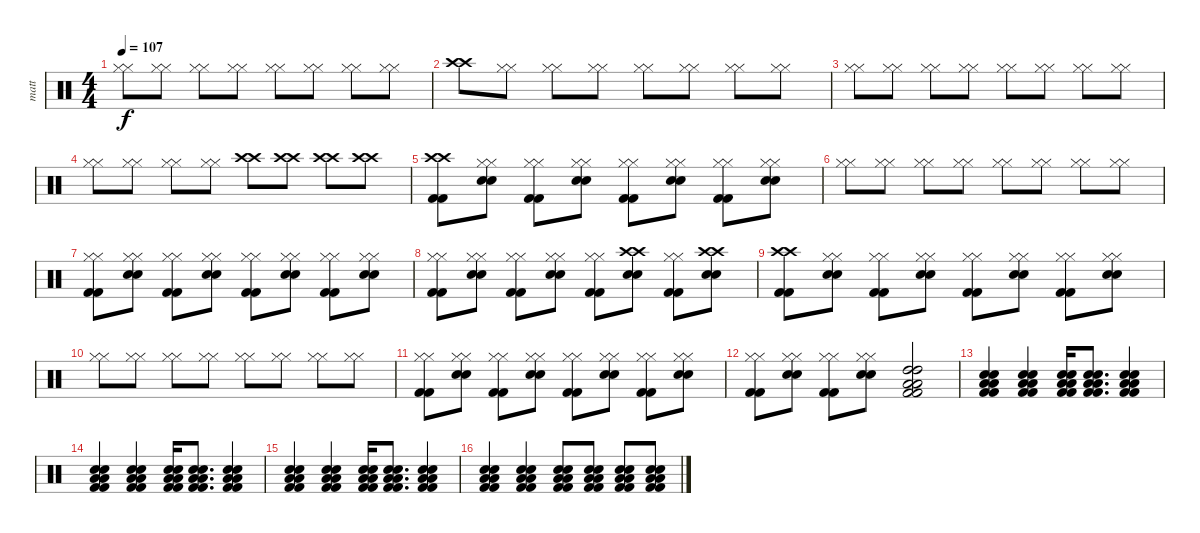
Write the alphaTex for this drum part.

\track ("matt" "matt") {instrument percussion}
\staff {score}
\articulation defaults
\ts (4 4)
\tempo 107
\clef neutral
\ks c
("Hi-Hat (closed)" "Hi-Hat (closed)").8{dy f} ("Hi-Hat (closed)" "Hi-Hat (closed)").8 ("Hi-Hat (closed)" "Hi-Hat (closed)").8 ("Hi-Hat (closed)" "Hi-Hat (closed)").8 ("Hi-Hat (closed)" "Hi-Hat (closed)").8 ("Hi-Hat (closed)" "Hi-Hat (closed)").8 ("Hi-Hat (closed)" "Hi-Hat (closed)").8 ("Hi-Hat (closed)" "Hi-Hat (closed)").8 |
("Crash high (hit)" "Crash high (hit)").8 ("Hi-Hat (closed)" "Hi-Hat (closed)").8 ("Hi-Hat (closed)" "Hi-Hat (closed)").8 ("Hi-Hat (closed)" "Hi-Hat (closed)").8 ("Hi-Hat (closed)" "Hi-Hat (closed)").8 ("Hi-Hat (closed)" "Hi-Hat (closed)").8 ("Hi-Hat (closed)" "Hi-Hat (closed)").8 ("Hi-Hat (closed)" "Hi-Hat (closed)").8 |
("Hi-Hat (closed)" "Hi-Hat (closed)").8 ("Hi-Hat (closed)" "Hi-Hat (closed)").8 ("Hi-Hat (closed)" "Hi-Hat (closed)").8 ("Hi-Hat (closed)" "Hi-Hat (closed)").8 ("Hi-Hat (closed)" "Hi-Hat (closed)").8 ("Hi-Hat (closed)" "Hi-Hat (closed)").8 ("Hi-Hat (closed)" "Hi-Hat (closed)").8 ("Hi-Hat (closed)" "Hi-Hat (closed)").8 |
("Hi-Hat (closed)" "Hi-Hat (closed)").8 ("Hi-Hat (closed)" "Hi-Hat (closed)").8 ("Hi-Hat (closed)" "Hi-Hat (closed)").8 ("Hi-Hat (closed)" "Hi-Hat (closed)").8 ("Crash high (hit)" "Crash high (hit)").8 ("Crash high (hit)" "Crash high (hit)").8 ("Crash high (hit)" "Crash high (hit)").8 ("Crash high (hit)" "Crash high (hit)").8 |
("Crash high (hit)" "Crash high (hit)" "Kick (hit) 2" "Kick (hit) 2").8 ("Hi-Hat (closed)" "Hi-Hat (closed)" "Snare (hit) 2" "Snare (hit) 2").8 ("Hi-Hat (closed)" "Hi-Hat (closed)" "Kick (hit) 2" "Kick (hit) 2").8 ("Hi-Hat (closed)" "Hi-Hat (closed)" "Snare (hit) 2" "Snare (hit) 2").8 ("Hi-Hat (closed)" "Hi-Hat (closed)" "Kick (hit) 2" "Kick (hit) 2").8 ("Hi-Hat (closed)" "Hi-Hat (closed)" "Snare (hit) 2" "Snare (hit) 2").8 ("Hi-Hat (closed)" "Hi-Hat (closed)" "Kick (hit) 2" "Kick (hit) 2").8 ("Hi-Hat (closed)" "Hi-Hat (closed)" "Snare (hit) 2" "Snare (hit) 2").8 |
("Hi-Hat (closed)" "Hi-Hat (closed)").8 ("Hi-Hat (closed)" "Hi-Hat (closed)").8 ("Hi-Hat (closed)" "Hi-Hat (closed)").8 ("Hi-Hat (closed)" "Hi-Hat (closed)").8 ("Hi-Hat (closed)" "Hi-Hat (closed)").8 ("Hi-Hat (closed)" "Hi-Hat (closed)").8 ("Hi-Hat (closed)" "Hi-Hat (closed)").8 ("Hi-Hat (closed)" "Hi-Hat (closed)").8 |
("Hi-Hat (closed)" "Hi-Hat (closed)" "Kick (hit) 2" "Kick (hit) 2").8 ("Hi-Hat (closed)" "Hi-Hat (closed)" "Snare (hit) 2" "Snare (hit) 2").8 ("Hi-Hat (closed)" "Hi-Hat (closed)" "Kick (hit) 2" "Kick (hit) 2").8 ("Hi-Hat (closed)" "Hi-Hat (closed)" "Snare (hit) 2" "Snare (hit) 2").8 ("Hi-Hat (closed)" "Hi-Hat (closed)" "Kick (hit) 2" "Kick (hit) 2").8 ("Hi-Hat (closed)" "Hi-Hat (closed)" "Snare (hit) 2" "Snare (hit) 2").8 ("Hi-Hat (closed)" "Hi-Hat (closed)" "Kick (hit) 2" "Kick (hit) 2").8 ("Hi-Hat (closed)" "Hi-Hat (closed)" "Snare (hit) 2" "Snare (hit) 2").8 |
("Hi-Hat (closed)" "Hi-Hat (closed)" "Kick (hit) 2" "Kick (hit) 2").8 ("Hi-Hat (closed)" "Hi-Hat (closed)" "Snare (hit) 2" "Snare (hit) 2").8 ("Hi-Hat (closed)" "Hi-Hat (closed)" "Kick (hit) 2" "Kick (hit) 2").8 ("Hi-Hat (closed)" "Hi-Hat (closed)" "Snare (hit) 2" "Snare (hit) 2").8 ("Hi-Hat (closed)" "Hi-Hat (closed)" "Kick (hit) 2" "Kick (hit) 2").8 ("Crash high (hit)" "Crash high (hit)" "Snare (hit) 2" "Snare (hit) 2").8 ("Hi-Hat (closed)" "Hi-Hat (closed)" "Kick (hit) 2" "Kick (hit) 2").8 ("Crash high (hit)" "Crash high (hit)" "Snare (hit) 2" "Snare (hit) 2").8 |
("Crash high (hit)" "Crash high (hit)" "Kick (hit) 2" "Kick (hit) 2").8 ("Hi-Hat (closed)" "Hi-Hat (closed)" "Snare (hit) 2" "Snare (hit) 2").8 ("Hi-Hat (closed)" "Hi-Hat (closed)" "Kick (hit) 2" "Kick (hit) 2").8 ("Hi-Hat (closed)" "Hi-Hat (closed)" "Snare (hit) 2" "Snare (hit) 2").8 ("Hi-Hat (closed)" "Hi-Hat (closed)" "Kick (hit) 2" "Kick (hit) 2").8 ("Hi-Hat (closed)" "Hi-Hat (closed)" "Snare (hit) 2" "Snare (hit) 2").8 ("Hi-Hat (closed)" "Hi-Hat (closed)" "Kick (hit) 2" "Kick (hit) 2").8 ("Hi-Hat (closed)" "Hi-Hat (closed)" "Snare (hit) 2" "Snare (hit) 2").8 |
("Hi-Hat (closed)" "Hi-Hat (closed)").8 ("Hi-Hat (closed)" "Hi-Hat (closed)").8 ("Hi-Hat (closed)" "Hi-Hat (closed)").8 ("Hi-Hat (closed)" "Hi-Hat (closed)").8 ("Hi-Hat (closed)" "Hi-Hat (closed)").8 ("Hi-Hat (closed)" "Hi-Hat (closed)").8 ("Hi-Hat (closed)" "Hi-Hat (closed)").8 ("Hi-Hat (closed)" "Hi-Hat (closed)").8 |
("Hi-Hat (closed)" "Hi-Hat (closed)" "Kick (hit) 2" "Kick (hit) 2").8 ("Hi-Hat (closed)" "Hi-Hat (closed)" "Snare (hit) 2" "Snare (hit) 2").8 ("Hi-Hat (closed)" "Hi-Hat (closed)" "Kick (hit) 2" "Kick (hit) 2").8 ("Hi-Hat (closed)" "Hi-Hat (closed)" "Snare (hit) 2" "Snare (hit) 2").8 ("Hi-Hat (closed)" "Hi-Hat (closed)" "Kick (hit) 2" "Kick (hit) 2").8 ("Hi-Hat (closed)" "Hi-Hat (closed)" "Snare (hit) 2" "Snare (hit) 2").8 ("Hi-Hat (closed)" "Hi-Hat (closed)" "Kick (hit) 2" "Kick (hit) 2").8 ("Hi-Hat (closed)" "Hi-Hat (closed)" "Snare (hit) 2" "Snare (hit) 2").8 |
("Hi-Hat (closed)" "Hi-Hat (closed)" "Kick (hit) 2" "Kick (hit) 2").8 ("Hi-Hat (closed)" "Hi-Hat (closed)" "Snare (hit) 2" "Snare (hit) 2").8 ("Hi-Hat (closed)" "Hi-Hat (closed)" "Kick (hit) 2" "Kick (hit) 2").8 ("Hi-Hat (closed)" "Hi-Hat (closed)" "Snare (hit) 2" "Snare (hit) 2").8 ("Low Tom (hit)" "Low Tom (hit)" "Kick (hit) 2" "Kick (hit) 2" "High Tom (hit)" "High Tom (hit)").2 |
("Low Tom (hit)" "Low Tom (hit)" "Kick (hit) 2" "Kick (hit) 2" "Snare (hit) 2" "Snare (hit) 2").4 ("Low Tom (hit)" "Low Tom (hit)" "Kick (hit) 2" "Kick (hit) 2" "Snare (hit) 2" "Snare (hit) 2").4 ("Low Tom (hit)" "Low Tom (hit)" "Kick (hit) 2" "Kick (hit) 2" "Snare (hit) 2" "Snare (hit) 2").16 ("Low Tom (hit)" "Low Tom (hit)" "Kick (hit) 2" "Kick (hit) 2" "Snare (hit) 2" "Snare (hit) 2").8{d} ("Low Tom (hit)" "Low Tom (hit)" "Kick (hit) 2" "Kick (hit) 2" "Snare (hit) 2" "Snare (hit) 2").4 |
("Low Tom (hit)" "Low Tom (hit)" "Kick (hit) 2" "Kick (hit) 2" "Snare (hit) 2" "Snare (hit) 2").4 ("Low Tom (hit)" "Low Tom (hit)" "Kick (hit) 2" "Kick (hit) 2" "Snare (hit) 2" "Snare (hit) 2").4 ("Low Tom (hit)" "Low Tom (hit)" "Kick (hit) 2" "Kick (hit) 2" "Snare (hit) 2" "Snare (hit) 2").16 ("Low Tom (hit)" "Low Tom (hit)" "Kick (hit) 2" "Kick (hit) 2" "Snare (hit) 2" "Snare (hit) 2").8{d} ("Low Tom (hit)" "Low Tom (hit)" "Kick (hit) 2" "Kick (hit) 2" "Snare (hit) 2" "Snare (hit) 2").4 |
("Low Tom (hit)" "Low Tom (hit)" "Kick (hit) 2" "Kick (hit) 2" "Snare (hit) 2" "Snare (hit) 2").4 ("Low Tom (hit)" "Low Tom (hit)" "Kick (hit) 2" "Kick (hit) 2" "Snare (hit) 2" "Snare (hit) 2").4 ("Low Tom (hit)" "Low Tom (hit)" "Kick (hit) 2" "Kick (hit) 2" "Snare (hit) 2" "Snare (hit) 2").16 ("Low Tom (hit)" "Low Tom (hit)" "Kick (hit) 2" "Kick (hit) 2" "Snare (hit) 2" "Snare (hit) 2").8{d} ("Low Tom (hit)" "Low Tom (hit)" "Kick (hit) 2" "Kick (hit) 2" "Snare (hit) 2" "Snare (hit) 2").4 |
("Low Tom (hit)" "Low Tom (hit)" "Kick (hit) 2" "Kick (hit) 2" "Snare (hit) 2" "Snare (hit) 2").4 ("Low Tom (hit)" "Low Tom (hit)" "Kick (hit) 2" "Kick (hit) 2" "Snare (hit) 2" "Snare (hit) 2").4 ("Low Tom (hit)" "Low Tom (hit)" "Kick (hit) 2" "Kick (hit) 2" "Snare (hit) 2" "Snare (hit) 2").8 ("Low Tom (hit)" "Low Tom (hit)" "Kick (hit) 2" "Kick (hit) 2" "Snare (hit) 2" "Snare (hit) 2").8 ("Low Tom (hit)" "Low Tom (hit)" "Kick (hit) 2" "Kick (hit) 2" "Snare (hit) 2" "Snare (hit) 2").8 ("Low Tom (hit)" "Low Tom (hit)" "Kick (hit) 2" "Kick (hit) 2" "Snare (hit) 2" "Snare (hit) 2").8
